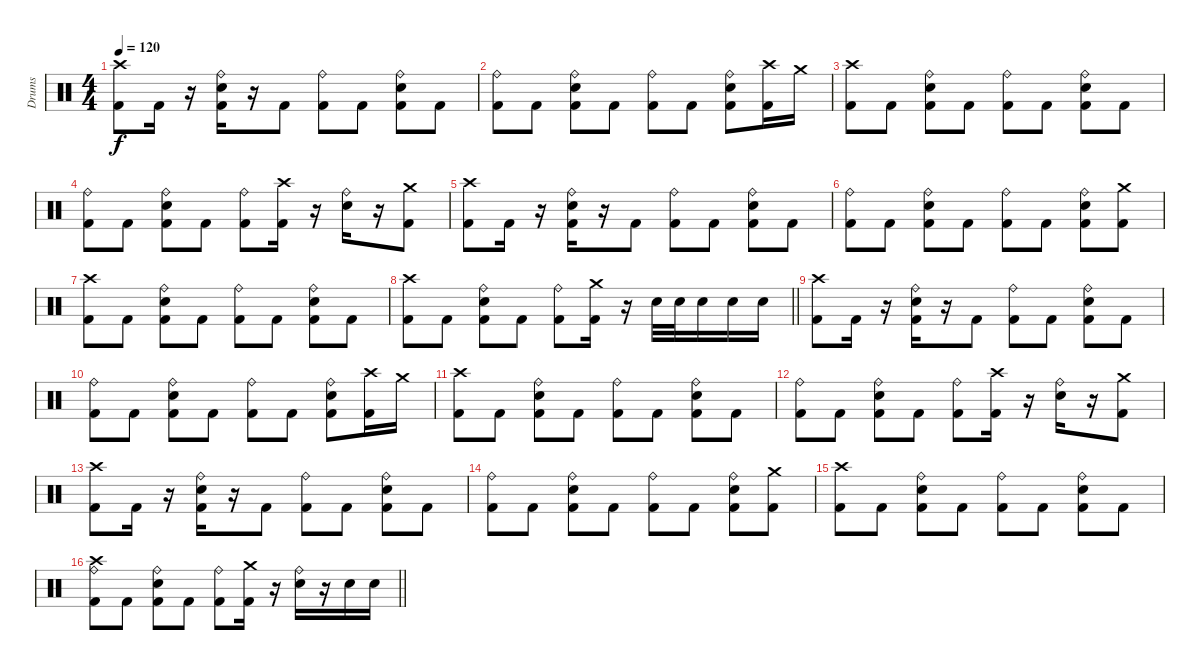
\track ("Drums" "Drums") {instrument percussion}
\staff {score}
\articulation defaults
\ts (4 4)
\section ("" " ")
\tempo 120
\clef neutral
\ks c
("Kick (hit) 2" "Crash high (hit)").8{dy f} "Kick (hit) 2".16 r.16 ("Kick (hit) 2" "Snare (hit) 2" "Ride (bell)").16 r.16 "Kick (hit) 2".8 ("Kick (hit) 2" "Ride (bell)").8 "Kick (hit) 2".8 ("Kick (hit) 2" "Snare (hit) 2" "Ride (bell)").8 "Kick (hit) 2".8 |
("Kick (hit) 2" "Ride (bell)").8 "Kick (hit) 2".8 ("Kick (hit) 2" "Snare (hit) 2" "Ride (bell)").8 "Kick (hit) 2".8 ("Kick (hit) 2" "Ride (bell)").8 "Kick (hit) 2".8 ("Kick (hit) 2" "Snare (hit) 2" "Ride (bell)").8 ("Kick (hit) 2" "Crash high (hit)").16 "Crash medium (hit)".16 |
("Kick (hit) 2" "Crash high (hit)").8 "Kick (hit) 2".8 ("Kick (hit) 2" "Snare (hit) 2" "Ride (bell)").8 "Kick (hit) 2".8 ("Kick (hit) 2" "Ride (bell)").8 "Kick (hit) 2".8 ("Kick (hit) 2" "Snare (hit) 2" "Ride (bell)").8 "Kick (hit) 2".8 |
("Kick (hit) 2" "Ride (bell)").8 "Kick (hit) 2".8 ("Kick (hit) 2" "Snare (hit) 2" "Ride (bell)").8 "Kick (hit) 2".8 ("Kick (hit) 2" "Ride (bell)").8 ("Kick (hit) 2" "Crash high (hit)").16 r.16 ("Snare (hit) 2" "Ride (bell)").16 r.16 ("Kick (hit) 2" "Crash medium (hit)").8 |
("Kick (hit) 2" "Crash high (hit)").8 "Kick (hit) 2".16 r.16 ("Kick (hit) 2" "Snare (hit) 2" "Ride (bell)").16 r.16 "Kick (hit) 2".8 ("Kick (hit) 2" "Ride (bell)").8 "Kick (hit) 2".8 ("Kick (hit) 2" "Snare (hit) 2" "Ride (bell)").8 "Kick (hit) 2".8 |
("Kick (hit) 2" "Ride (bell)").8 "Kick (hit) 2".8 ("Kick (hit) 2" "Snare (hit) 2" "Ride (bell)").8 "Kick (hit) 2".8 ("Kick (hit) 2" "Ride (bell)").8 "Kick (hit) 2".8 ("Kick (hit) 2" "Snare (hit) 2" "Ride (bell)").8 ("Kick (hit) 2" "Crash medium (hit)").8 |
("Kick (hit) 2" "Crash high (hit)").8 "Kick (hit) 2".8 ("Kick (hit) 2" "Snare (hit) 2" "Ride (bell)").8 "Kick (hit) 2".8 ("Kick (hit) 2" "Ride (bell)").8 "Kick (hit) 2".8 ("Kick (hit) 2" "Snare (hit) 2" "Ride (bell)").8 "Kick (hit) 2".8 |
\barLineRight lightlight
("Kick (hit) 2" "Crash high (hit)").8 "Kick (hit) 2".8 ("Kick (hit) 2" "Snare (hit) 2" "Ride (bell)").8 "Kick (hit) 2".8 ("Kick (hit) 2" "Ride (bell)").8 ("Kick (hit) 2" "Crash medium (hit)").16 r.16 "Snare (hit) 2".32 "Snare (hit) 2".32 "Snare (hit) 2".16 "Snare (hit) 2".16 "Snare (hit) 2".16 |
\section ("" " ")
("Kick (hit) 2" "Crash high (hit)").8 "Kick (hit) 2".16 r.16 ("Kick (hit) 2" "Snare (hit) 2" "Ride (bell)").16 r.16 "Kick (hit) 2".8 ("Kick (hit) 2" "Ride (bell)").8 "Kick (hit) 2".8 ("Kick (hit) 2" "Snare (hit) 2" "Ride (bell)").8 "Kick (hit) 2".8 |
("Kick (hit) 2" "Ride (bell)").8 "Kick (hit) 2".8 ("Kick (hit) 2" "Snare (hit) 2" "Ride (bell)").8 "Kick (hit) 2".8 ("Kick (hit) 2" "Ride (bell)").8 "Kick (hit) 2".8 ("Kick (hit) 2" "Snare (hit) 2" "Ride (bell)").8 ("Kick (hit) 2" "Crash high (hit)").16 "Crash medium (hit)".16 |
("Kick (hit) 2" "Crash high (hit)").8 "Kick (hit) 2".8 ("Kick (hit) 2" "Snare (hit) 2" "Ride (bell)").8 "Kick (hit) 2".8 ("Kick (hit) 2" "Ride (bell)").8 "Kick (hit) 2".8 ("Kick (hit) 2" "Snare (hit) 2" "Ride (bell)").8 "Kick (hit) 2".8 |
("Kick (hit) 2" "Ride (bell)").8 "Kick (hit) 2".8 ("Kick (hit) 2" "Snare (hit) 2" "Ride (bell)").8 "Kick (hit) 2".8 ("Kick (hit) 2" "Ride (bell)").8 ("Kick (hit) 2" "Crash high (hit)").16 r.16 ("Snare (hit) 2" "Ride (bell)").16 r.16 ("Kick (hit) 2" "Crash medium (hit)").8 |
("Kick (hit) 2" "Crash high (hit)").8 "Kick (hit) 2".16 r.16 ("Kick (hit) 2" "Snare (hit) 2" "Ride (bell)").16 r.16 "Kick (hit) 2".8 ("Kick (hit) 2" "Ride (bell)").8 "Kick (hit) 2".8 ("Kick (hit) 2" "Snare (hit) 2" "Ride (bell)").8 "Kick (hit) 2".8 |
("Kick (hit) 2" "Ride (bell)").8 "Kick (hit) 2".8 ("Kick (hit) 2" "Snare (hit) 2" "Ride (bell)").8 "Kick (hit) 2".8 ("Kick (hit) 2" "Ride (bell)").8 "Kick (hit) 2".8 ("Kick (hit) 2" "Snare (hit) 2" "Ride (bell)").8 ("Kick (hit) 2" "Crash medium (hit)").8 |
("Kick (hit) 2" "Crash high (hit)").8 "Kick (hit) 2".8 ("Kick (hit) 2" "Snare (hit) 2" "Ride (bell)").8 "Kick (hit) 2".8 ("Kick (hit) 2" "Ride (bell)").8 "Kick (hit) 2".8 ("Kick (hit) 2" "Snare (hit) 2" "Ride (bell)").8 "Kick (hit) 2".8 |
\barLineRight lightlight
("Kick (hit) 2" "Crash high (hit)" "Ride (bell)").8 "Kick (hit) 2".8 ("Kick (hit) 2" "Snare (hit) 2" "Ride (bell)").8 "Kick (hit) 2".8 ("Kick (hit) 2" "Ride (bell)").8 ("Kick (hit) 2" "Crash medium (hit)").16 r.16 ("Snare (hit) 2" "Ride (bell)").16 r.16 "Snare (hit) 2".16 "Snare (hit) 2".16
